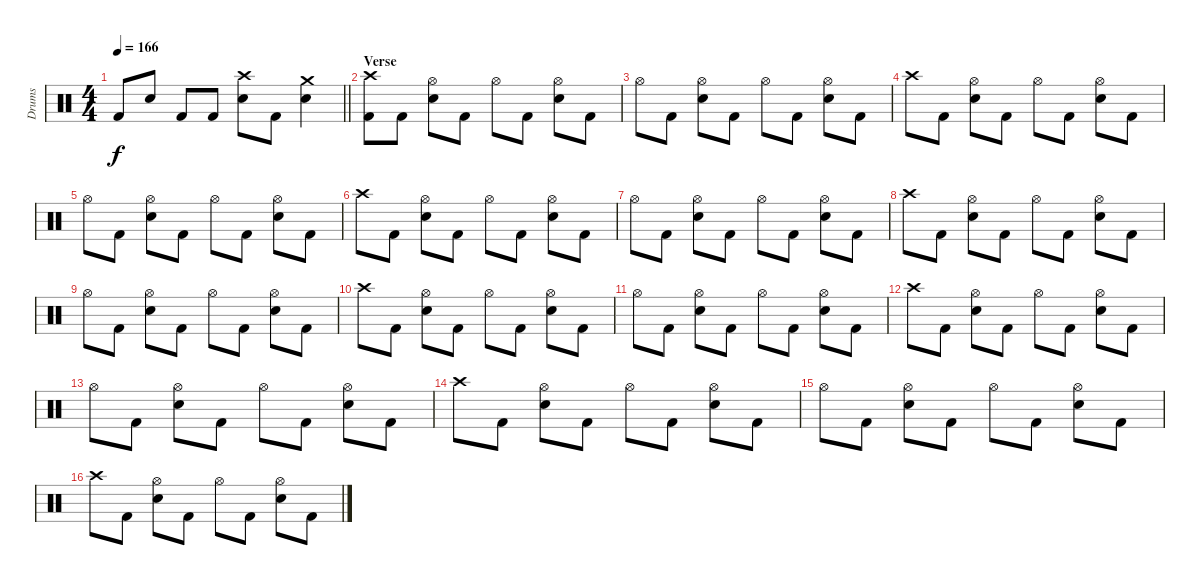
\track ("Drums" "Drums") {instrument percussion}
\staff {score}
\articulation defaults
\ts (4 4)
\tempo 166
\clef neutral
\barLineRight lightlight
\ks c "Kick (hit) 2".8{dy f} "Electric Snare (hit)".8 "Kick (hit) 2".8 "Kick (hit) 2".8
("Crash high (hit)" "Electric Snare (hit)").8 "Kick (hit) 2".8 ("Crash medium (hit)" "Electric Snare (hit)").4 |
\section ("" "Verse")
("Crash high (hit)" "Kick (hit) 2").8 "Kick (hit) 2".8 ("Hi-Hat (open)" "Electric Snare (hit)").8 "Kick (hit) 2".8 "Hi-Hat (open)".8 "Kick (hit) 2".8 ("Hi-Hat (open)" "Electric Snare (hit)").8 "Kick (hit) 2".8 |
"Hi-Hat (open)".8 "Kick (hit) 2".8 ("Hi-Hat (open)" "Electric Snare (hit)").8 "Kick (hit) 2".8 "Hi-Hat (open)".8 "Kick (hit) 2".8 ("Hi-Hat (open)" "Electric Snare (hit)").8 "Kick (hit) 2".8 |
"Crash high (hit)".8 "Kick (hit) 2".8 ("Hi-Hat (open)" "Electric Snare (hit)").8 "Kick (hit) 2".8 "Hi-Hat (open)".8 "Kick (hit) 2".8 ("Hi-Hat (open)" "Electric Snare (hit)").8 "Kick (hit) 2".8 |
"Hi-Hat (open)".8 "Kick (hit) 2".8 ("Hi-Hat (open)" "Electric Snare (hit)").8 "Kick (hit) 2".8 "Hi-Hat (open)".8 "Kick (hit) 2".8 ("Hi-Hat (open)" "Electric Snare (hit)").8 "Kick (hit) 2".8 |
"Crash high (hit)".8 "Kick (hit) 2".8 ("Hi-Hat (open)" "Electric Snare (hit)").8 "Kick (hit) 2".8 "Hi-Hat (open)".8 "Kick (hit) 2".8 ("Hi-Hat (open)" "Electric Snare (hit)").8 "Kick (hit) 2".8 |
"Hi-Hat (open)".8 "Kick (hit) 2".8 ("Hi-Hat (open)" "Electric Snare (hit)").8 "Kick (hit) 2".8 "Hi-Hat (open)".8 "Kick (hit) 2".8 ("Hi-Hat (open)" "Electric Snare (hit)").8 "Kick (hit) 2".8 |
"Crash high (hit)".8 "Kick (hit) 2".8 ("Hi-Hat (open)" "Electric Snare (hit)").8 "Kick (hit) 2".8 "Hi-Hat (open)".8 "Kick (hit) 2".8 ("Hi-Hat (open)" "Electric Snare (hit)").8 "Kick (hit) 2".8 |
"Hi-Hat (open)".8 "Kick (hit) 2".8 ("Hi-Hat (open)" "Electric Snare (hit)").8 "Kick (hit) 2".8 "Hi-Hat (open)".8 "Kick (hit) 2".8 ("Hi-Hat (open)" "Electric Snare (hit)").8 "Kick (hit) 2".8 |
"Crash high (hit)".8 "Kick (hit) 2".8 ("Hi-Hat (open)" "Electric Snare (hit)").8 "Kick (hit) 2".8 "Hi-Hat (open)".8 "Kick (hit) 2".8 ("Hi-Hat (open)" "Electric Snare (hit)").8 "Kick (hit) 2".8 |
"Hi-Hat (open)".8 "Kick (hit) 2".8 ("Hi-Hat (open)" "Electric Snare (hit)").8 "Kick (hit) 2".8 "Hi-Hat (open)".8 "Kick (hit) 2".8 ("Hi-Hat (open)" "Electric Snare (hit)").8 "Kick (hit) 2".8 |
"Crash high (hit)".8 "Kick (hit) 2".8 ("Hi-Hat (open)" "Electric Snare (hit)").8 "Kick (hit) 2".8 "Hi-Hat (open)".8 "Kick (hit) 2".8 ("Hi-Hat (open)" "Electric Snare (hit)").8 "Kick (hit) 2".8 |
"Hi-Hat (open)".8 "Kick (hit) 2".8 ("Hi-Hat (open)" "Electric Snare (hit)").8 "Kick (hit) 2".8 "Hi-Hat (open)".8 "Kick (hit) 2".8 ("Hi-Hat (open)" "Electric Snare (hit)").8 "Kick (hit) 2".8 |
"Crash high (hit)".8 "Kick (hit) 2".8 ("Hi-Hat (open)" "Electric Snare (hit)").8 "Kick (hit) 2".8 "Hi-Hat (open)".8 "Kick (hit) 2".8 ("Hi-Hat (open)" "Electric Snare (hit)").8 "Kick (hit) 2".8 |
"Hi-Hat (open)".8 "Kick (hit) 2".8 ("Hi-Hat (open)" "Electric Snare (hit)").8 "Kick (hit) 2".8 "Hi-Hat (open)".8 "Kick (hit) 2".8 ("Hi-Hat (open)" "Electric Snare (hit)").8 "Kick (hit) 2".8 |
"Crash high (hit)".8 "Kick (hit) 2".8 ("Hi-Hat (open)" "Electric Snare (hit)").8 "Kick (hit) 2".8 "Hi-Hat (open)".8 "Kick (hit) 2".8 ("Hi-Hat (open)" "Electric Snare (hit)").8 "Kick (hit) 2".8
